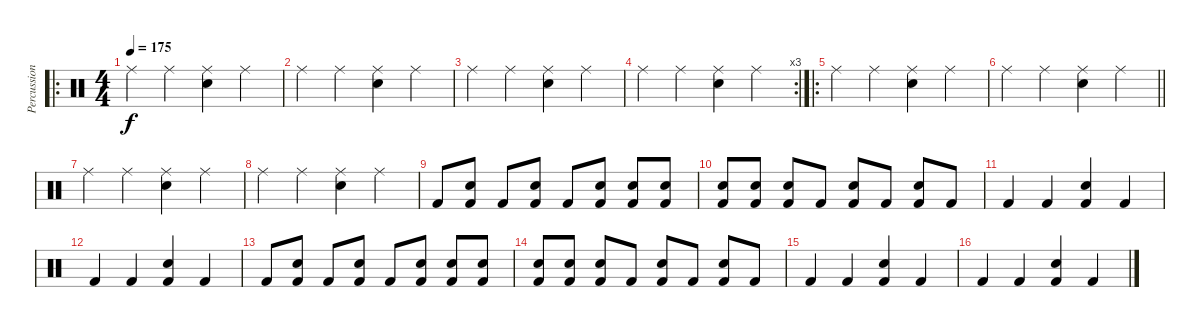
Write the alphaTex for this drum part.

\track ("Percussion" "Percussion") {instrument percussion}
\staff {score}
\articulation defaults
\ro
\ts (4 4)
\tempo 175
\clef neutral
\ks c "Ride (middle)".4{dy f} "Ride (middle)".4
("Ride (middle)" "Snare (hit) 2").4 "Ride (middle)".4 |
"Ride (middle)".4 "Ride (middle)".4 ("Ride (middle)" "Snare (hit) 2").4 "Ride (middle)".4 |
"Ride (middle)".4 "Ride (middle)".4 ("Ride (middle)" "Snare (hit) 2").4 "Ride (middle)".4 |
\rc 3 "Ride (middle)".4 "Ride (middle)".4
("Ride (middle)" "Snare (hit) 2").4 "Ride (middle)".4 |
\ro "Ride (middle)".4 "Ride (middle)".4
("Ride (middle)" "Snare (hit) 2").4 "Ride (middle)".4 |
\barLineRight lightlight "Ride (middle)".4 "Ride (middle)".4
("Ride (middle)" "Snare (hit) 2").4 "Ride (middle)".4 |
"Ride (middle)".4 "Ride (middle)".4 ("Ride (middle)" "Snare (hit) 2").4 "Ride (middle)".4 |
"Ride (middle)".4 "Ride (middle)".4 ("Ride (middle)" "Snare (hit) 2").4 "Ride (middle)".4 |
"Kick (hit) 2".8 ("Snare (hit) 2" "Kick (hit) 2").8 "Kick (hit) 2".8 ("Snare (hit) 2" "Kick (hit) 2").8 "Kick (hit) 2".8 ("Snare (hit) 2" "Kick (hit) 2").8 ("Snare (hit) 2" "Kick (hit) 2").8 ("Snare (hit) 2" "Kick (hit) 2").8 |
("Snare (hit) 2" "Kick (hit) 2").8 ("Snare (hit) 2" "Kick (hit) 2").8 ("Snare (hit) 2" "Kick (hit) 2").8 "Kick (hit) 2".8 ("Snare (hit) 2" "Kick (hit) 2").8 "Kick (hit) 2".8 ("Snare (hit) 2" "Kick (hit) 2").8 "Kick (hit) 2".8 |
"Kick (hit) 2".4 "Kick (hit) 2".4 ("Snare (hit) 2" "Kick (hit) 2").4 "Kick (hit) 2".4 |
"Kick (hit) 2".4 "Kick (hit) 2".4 ("Snare (hit) 2" "Kick (hit) 2").4 "Kick (hit) 2".4 |
"Kick (hit) 2".8 ("Snare (hit) 2" "Kick (hit) 2").8 "Kick (hit) 2".8 ("Snare (hit) 2" "Kick (hit) 2").8 "Kick (hit) 2".8 ("Snare (hit) 2" "Kick (hit) 2").8 ("Snare (hit) 2" "Kick (hit) 2").8 ("Snare (hit) 2" "Kick (hit) 2").8 |
("Snare (hit) 2" "Kick (hit) 2").8 ("Snare (hit) 2" "Kick (hit) 2").8 ("Snare (hit) 2" "Kick (hit) 2").8 "Kick (hit) 2".8 ("Snare (hit) 2" "Kick (hit) 2").8 "Kick (hit) 2".8 ("Snare (hit) 2" "Kick (hit) 2").8 "Kick (hit) 2".8 |
"Kick (hit) 2".4 "Kick (hit) 2".4 ("Snare (hit) 2" "Kick (hit) 2").4 "Kick (hit) 2".4 |
"Kick (hit) 2".4 "Kick (hit) 2".4 ("Snare (hit) 2" "Kick (hit) 2").4 "Kick (hit) 2".4
